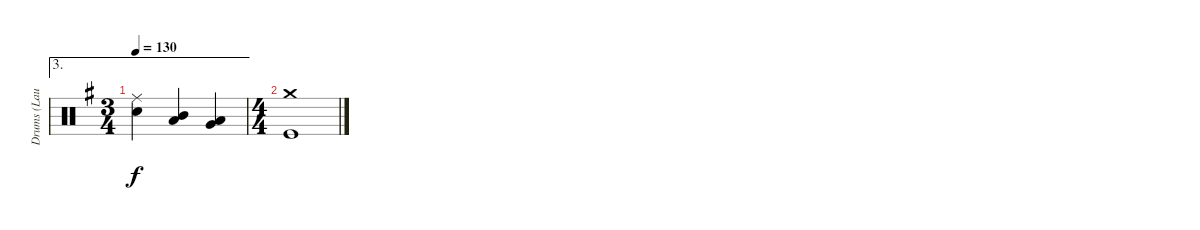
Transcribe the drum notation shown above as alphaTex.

\track ("Drums (Laura)" "Drums (Lau") {instrument percussion}
\staff {score}
\articulation defaults
\ae 3
\ts (3 4)
\tempo 130
\clef neutral
\ks eminor
("Ride (middle)" "Snare (hit) 2").4{dy f} ("Mid Tom (hit)" "Low Tom (hit)").4 ("Low Tom (hit)" "Very Low Tom (hit)").4 |
\ts (4 4)
("Crash medium (hit)" "Kick (hit)").1
